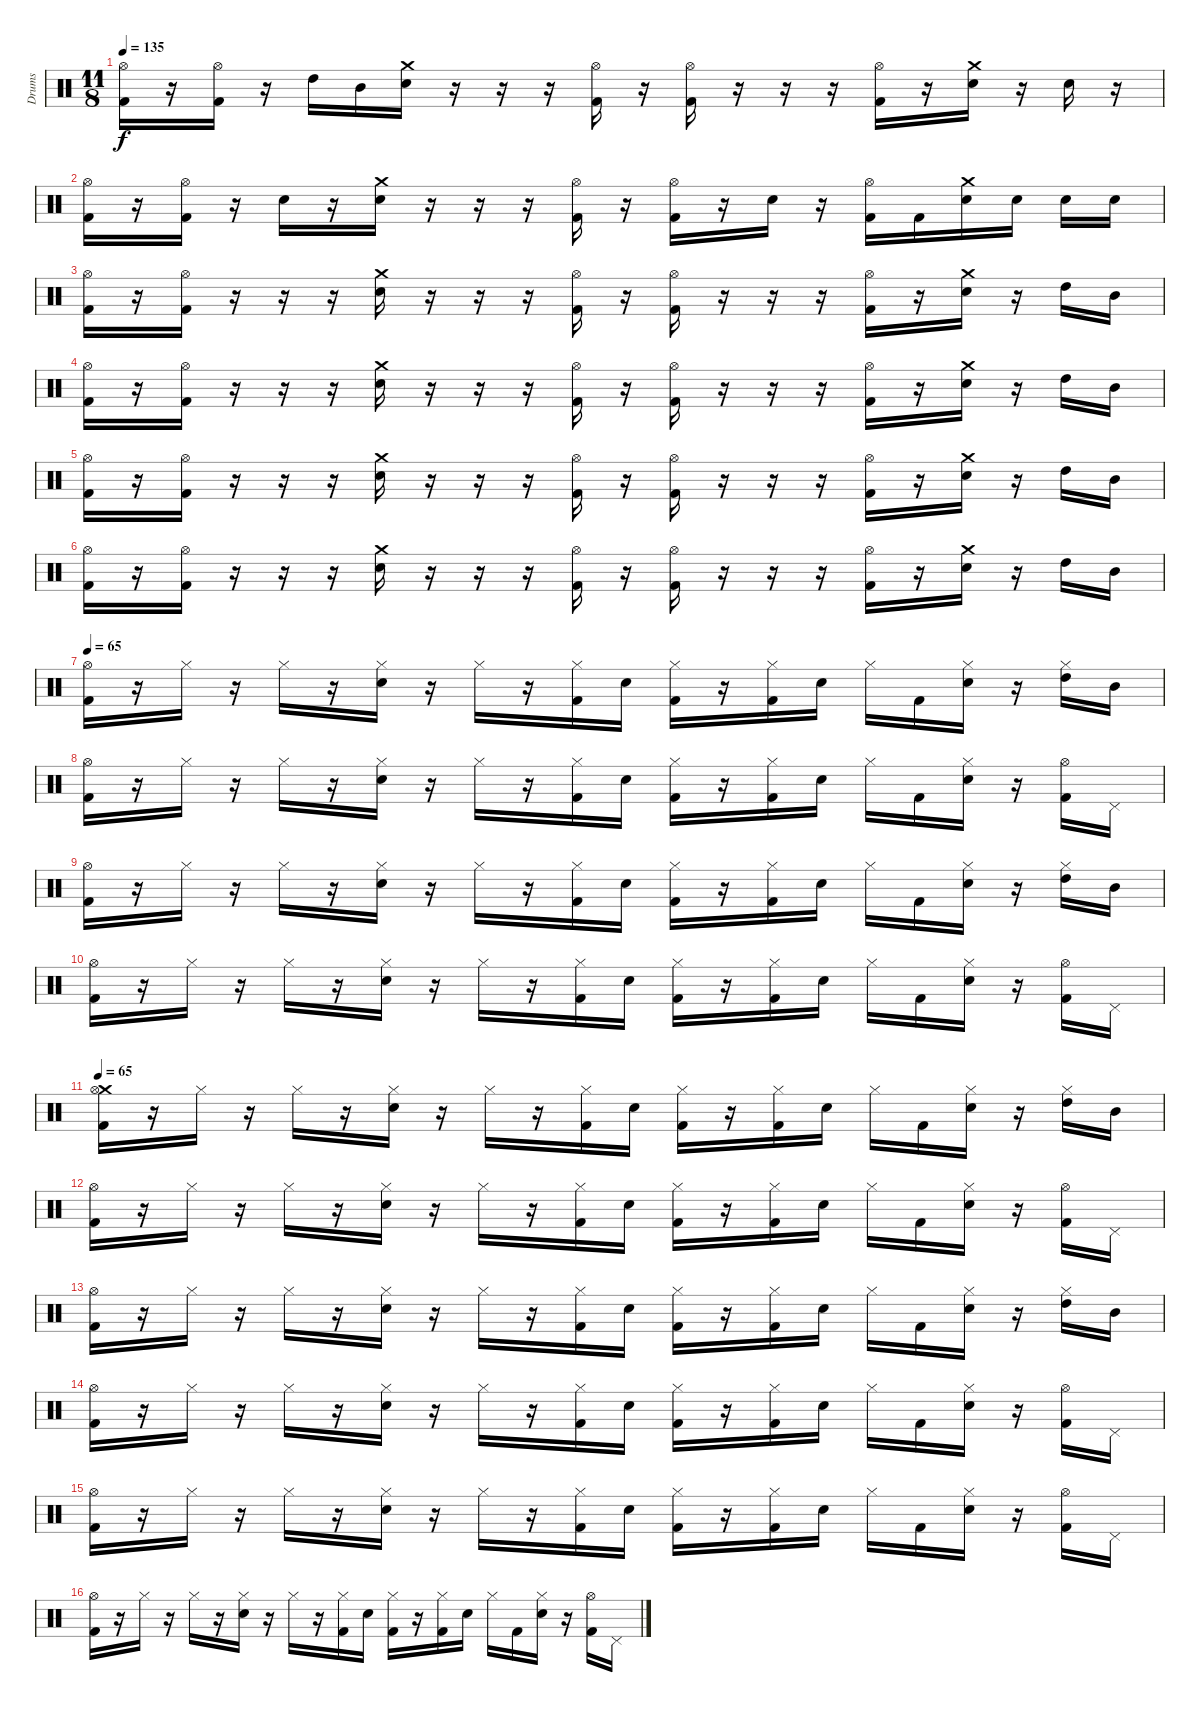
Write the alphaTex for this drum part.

\track ("Drums" "Drums") {instrument percussion}
\staff {score}
\articulation defaults
\ts (11 8)
\tempo 135
\clef neutral
\ks c
("Hi-Hat (open)" "Kick (hit) 2").16{dy f} r.16 ("Hi-Hat (open)" "Kick (hit) 2").16 r.16 "High Tom (hit)".16 "Mid Tom (hit)".16 ("Crash medium (hit)" "Electric Snare (hit)").16 r.16 r.16 r.16 ("Hi-Hat (open)" "Kick (hit) 2").16 r.16 ("Hi-Hat (open)" "Kick (hit) 2").16 r.16 r.16 r.16 ("Hi-Hat (open)" "Kick (hit) 2").16 r.16 ("Crash medium (hit)" "Electric Snare (hit)").16 r.16 "Electric Snare (hit)".16 r.16 |
("Hi-Hat (open)" "Kick (hit) 2").16 r.16 ("Hi-Hat (open)" "Kick (hit) 2").16 r.16 "Electric Snare (hit)".16 r.16 ("Crash medium (hit)" "Electric Snare (hit)").16 r.16 r.16 r.16 ("Hi-Hat (open)" "Kick (hit) 2").16 r.16 ("Hi-Hat (open)" "Kick (hit) 2").16 r.16 "Electric Snare (hit)".16 r.16 ("Hi-Hat (open)" "Kick (hit) 2").16 "Kick (hit) 2".16 ("Crash medium (hit)" "Electric Snare (hit)").16 "Electric Snare (hit)".16 "Electric Snare (hit)".16 "Electric Snare (hit)".16 |
("Hi-Hat (open)" "Kick (hit) 2").16 r.16 ("Hi-Hat (open)" "Kick (hit) 2").16 r.16 r.16 r.16 ("Crash medium (hit)" "Electric Snare (hit)").16 r.16 r.16 r.16 ("Hi-Hat (open)" "Kick (hit) 2").16 r.16 ("Hi-Hat (open)" "Kick (hit) 2").16 r.16 r.16 r.16 ("Hi-Hat (open)" "Kick (hit) 2").16 r.16 ("Crash medium (hit)" "Electric Snare (hit)").16 r.16 "High Tom (hit)".16 "Mid Tom (hit)".16 |
("Hi-Hat (open)" "Kick (hit) 2").16 r.16 ("Hi-Hat (open)" "Kick (hit) 2").16 r.16 r.16 r.16 ("Crash medium (hit)" "Electric Snare (hit)").16 r.16 r.16 r.16 ("Hi-Hat (open)" "Kick (hit) 2").16 r.16 ("Hi-Hat (open)" "Kick (hit) 2").16 r.16 r.16 r.16 ("Hi-Hat (open)" "Kick (hit) 2").16 r.16 ("Crash medium (hit)" "Electric Snare (hit)").16 r.16 "High Tom (hit)".16 "Mid Tom (hit)".16 |
("Hi-Hat (open)" "Kick (hit) 2").16 r.16 ("Hi-Hat (open)" "Kick (hit) 2").16 r.16 r.16 r.16 ("Crash medium (hit)" "Electric Snare (hit)").16 r.16 r.16 r.16 ("Hi-Hat (open)" "Kick (hit) 2").16 r.16 ("Hi-Hat (open)" "Kick (hit) 2").16 r.16 r.16 r.16 ("Hi-Hat (open)" "Kick (hit) 2").16 r.16 ("Crash medium (hit)" "Electric Snare (hit)").16 r.16 "High Tom (hit)".16 "Mid Tom (hit)".16 |
("Hi-Hat (open)" "Kick (hit) 2").16 r.16 ("Hi-Hat (open)" "Kick (hit) 2").16 r.16 r.16 r.16 ("Crash medium (hit)" "Electric Snare (hit)").16 r.16 r.16 r.16 ("Hi-Hat (open)" "Kick (hit) 2").16 r.16 ("Hi-Hat (open)" "Kick (hit) 2").16 r.16 r.16 r.16 ("Hi-Hat (open)" "Kick (hit) 2").16 r.16 ("Crash medium (hit)" "Electric Snare (hit)").16 r.16 "High Tom (hit)".16 "Mid Tom (hit)".16 |
\tempo 65
("Hi-Hat (open)" "Kick (hit) 2").16 r.16 "Hi-Hat (closed)".16 r.16 "Hi-Hat (closed)".16 r.16 ("Hi-Hat (closed)" "Electric Snare (hit)").16 r.16 "Hi-Hat (closed)".16 r.16 ("Hi-Hat (closed)" "Kick (hit) 2").16 "Electric Snare (hit)".16 ("Hi-Hat (closed)" "Kick (hit) 2").16 r.16 ("Hi-Hat (closed)" "Kick (hit) 2").16 "Electric Snare (hit)".16 "Hi-Hat (closed)".16 "Kick (hit) 2".16 ("Hi-Hat (closed)" "Electric Snare (hit)").16 r.16 ("Hi-Hat (closed)" "High Tom (hit)").16 "Mid Tom (hit)".16 |
("Hi-Hat (open)" "Kick (hit) 2").16 r.16 "Hi-Hat (closed)".16 r.16 "Hi-Hat (closed)".16 r.16 ("Hi-Hat (closed)" "Electric Snare (hit)").16 r.16 "Hi-Hat (closed)".16 r.16 ("Hi-Hat (closed)" "Kick (hit) 2").16 "Electric Snare (hit)".16 ("Hi-Hat (closed)" "Kick (hit) 2").16 r.16 ("Hi-Hat (closed)" "Kick (hit) 2").16 "Electric Snare (hit)".16 "Hi-Hat (closed)".16 "Kick (hit) 2".16 ("Hi-Hat (closed)" "Electric Snare (hit)").16 r.16 ("Hi-Hat (open)" "Kick (hit) 2").16 "Pedal Hi-Hat (hit)".16 |
("Hi-Hat (open)" "Kick (hit) 2").16 r.16 "Hi-Hat (closed)".16 r.16 "Hi-Hat (closed)".16 r.16 ("Hi-Hat (closed)" "Electric Snare (hit)").16 r.16 "Hi-Hat (closed)".16 r.16 ("Hi-Hat (closed)" "Kick (hit) 2").16 "Electric Snare (hit)".16 ("Hi-Hat (closed)" "Kick (hit) 2").16 r.16 ("Hi-Hat (closed)" "Kick (hit) 2").16 "Electric Snare (hit)".16 "Hi-Hat (closed)".16 "Kick (hit) 2".16 ("Hi-Hat (closed)" "Electric Snare (hit)").16 r.16 ("Hi-Hat (closed)" "High Tom (hit)").16 "Mid Tom (hit)".16 |
("Hi-Hat (open)" "Kick (hit) 2").16 r.16 "Hi-Hat (closed)".16 r.16 "Hi-Hat (closed)".16 r.16 ("Hi-Hat (closed)" "Electric Snare (hit)").16 r.16 "Hi-Hat (closed)".16 r.16 ("Hi-Hat (closed)" "Kick (hit) 2").16 "Electric Snare (hit)".16 ("Hi-Hat (closed)" "Kick (hit) 2").16 r.16 ("Hi-Hat (closed)" "Kick (hit) 2").16 "Electric Snare (hit)".16 "Hi-Hat (closed)".16 "Kick (hit) 2".16 ("Hi-Hat (closed)" "Electric Snare (hit)").16 r.16 ("Hi-Hat (open)" "Kick (hit) 2").16 "Pedal Hi-Hat (hit)".16 |
\tempo 65
("Crash medium (hit)" "Hi-Hat (open)" "Kick (hit) 2").16 r.16 "Hi-Hat (closed)".16 r.16 "Hi-Hat (closed)".16 r.16 ("Hi-Hat (closed)" "Electric Snare (hit)").16 r.16 "Hi-Hat (closed)".16 r.16 ("Hi-Hat (closed)" "Kick (hit) 2").16 "Electric Snare (hit)".16 ("Hi-Hat (closed)" "Kick (hit) 2").16 r.16 ("Hi-Hat (closed)" "Kick (hit) 2").16 "Electric Snare (hit)".16 "Hi-Hat (closed)".16 "Kick (hit) 2".16 ("Hi-Hat (closed)" "Electric Snare (hit)").16 r.16 ("Hi-Hat (closed)" "High Tom (hit)").16 "Mid Tom (hit)".16 |
("Hi-Hat (open)" "Kick (hit) 2").16 r.16 "Hi-Hat (closed)".16 r.16 "Hi-Hat (closed)".16 r.16 ("Hi-Hat (closed)" "Electric Snare (hit)").16 r.16 "Hi-Hat (closed)".16 r.16 ("Hi-Hat (closed)" "Kick (hit) 2").16 "Electric Snare (hit)".16 ("Hi-Hat (closed)" "Kick (hit) 2").16 r.16 ("Hi-Hat (closed)" "Kick (hit) 2").16 "Electric Snare (hit)".16 "Hi-Hat (closed)".16 "Kick (hit) 2".16 ("Hi-Hat (closed)" "Electric Snare (hit)").16 r.16 ("Hi-Hat (open)" "Kick (hit) 2").16 "Pedal Hi-Hat (hit)".16 |
("Hi-Hat (open)" "Kick (hit) 2").16 r.16 "Hi-Hat (closed)".16 r.16 "Hi-Hat (closed)".16 r.16 ("Hi-Hat (closed)" "Electric Snare (hit)").16 r.16 "Hi-Hat (closed)".16 r.16 ("Hi-Hat (closed)" "Kick (hit) 2").16 "Electric Snare (hit)".16 ("Hi-Hat (closed)" "Kick (hit) 2").16 r.16 ("Hi-Hat (closed)" "Kick (hit) 2").16 "Electric Snare (hit)".16 "Hi-Hat (closed)".16 "Kick (hit) 2".16 ("Hi-Hat (closed)" "Electric Snare (hit)").16 r.16 ("Hi-Hat (closed)" "High Tom (hit)").16 "Mid Tom (hit)".16 |
("Hi-Hat (open)" "Kick (hit) 2").16 r.16 "Hi-Hat (closed)".16 r.16 "Hi-Hat (closed)".16 r.16 ("Hi-Hat (closed)" "Electric Snare (hit)").16 r.16 "Hi-Hat (closed)".16 r.16 ("Hi-Hat (closed)" "Kick (hit) 2").16 "Electric Snare (hit)".16 ("Hi-Hat (closed)" "Kick (hit) 2").16 r.16 ("Hi-Hat (closed)" "Kick (hit) 2").16 "Electric Snare (hit)".16 "Hi-Hat (closed)".16 "Kick (hit) 2".16 ("Hi-Hat (closed)" "Electric Snare (hit)").16 r.16 ("Hi-Hat (open)" "Kick (hit) 2").16 "Pedal Hi-Hat (hit)".16 |
("Hi-Hat (open)" "Kick (hit) 2").16 r.16 "Hi-Hat (closed)".16 r.16 "Hi-Hat (closed)".16 r.16 ("Hi-Hat (closed)" "Electric Snare (hit)").16 r.16 "Hi-Hat (closed)".16 r.16 ("Hi-Hat (closed)" "Kick (hit) 2").16 "Electric Snare (hit)".16 ("Hi-Hat (closed)" "Kick (hit) 2").16 r.16 ("Hi-Hat (closed)" "Kick (hit) 2").16 "Electric Snare (hit)".16 "Hi-Hat (closed)".16 "Kick (hit) 2".16 ("Hi-Hat (closed)" "Electric Snare (hit)").16 r.16 ("Hi-Hat (open)" "Kick (hit) 2").16 "Pedal Hi-Hat (hit)".16 |
("Hi-Hat (open)" "Kick (hit) 2").16 r.16 "Hi-Hat (closed)".16 r.16 "Hi-Hat (closed)".16 r.16 ("Hi-Hat (closed)" "Electric Snare (hit)").16 r.16 "Hi-Hat (closed)".16 r.16 ("Hi-Hat (closed)" "Kick (hit) 2").16 "Electric Snare (hit)".16 ("Hi-Hat (closed)" "Kick (hit) 2").16 r.16 ("Hi-Hat (closed)" "Kick (hit) 2").16 "Electric Snare (hit)".16 "Hi-Hat (closed)".16 "Kick (hit) 2".16 ("Hi-Hat (closed)" "Electric Snare (hit)").16 r.16 ("Hi-Hat (open)" "Kick (hit) 2").16 "Pedal Hi-Hat (hit)".16
